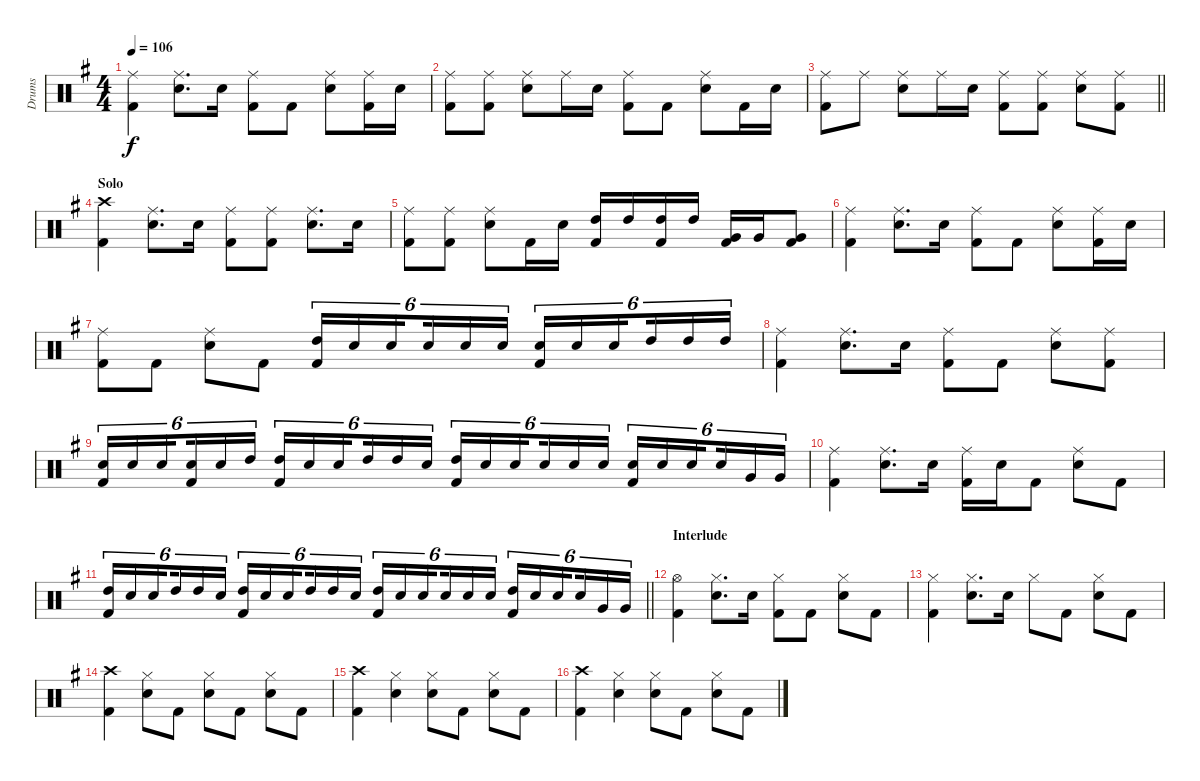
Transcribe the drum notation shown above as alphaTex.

\track ("Drums" "Drums") {instrument percussion}
\staff {score}
\articulation defaults
\ts (4 4)
\tempo 106
\clef neutral
\ks g
("Ride (middle)" "Kick (hit) 2").4{dy f} ("Ride (middle)" "Snare (hit) 2").8{d} "Snare (hit) 2".16 ("Ride (middle)" "Kick (hit) 2").8 "Kick (hit) 2".8 ("Ride (middle)" "Snare (hit) 2").8 ("Ride (middle)" "Kick (hit) 2").16 "Snare (hit) 2".16 |
("Ride (middle)" "Kick (hit) 2").8 ("Ride (middle)" "Kick (hit) 2").8 ("Ride (middle)" "Snare (hit) 2").8 "Ride (middle)".16 "Snare (hit) 2".16 ("Ride (middle)" "Kick (hit) 2").8 "Kick (hit) 2".8 ("Ride (middle)" "Snare (hit) 2").8 "Kick (hit) 2".16 "Snare (hit) 2".16 |
\barLineRight lightlight
("Ride (middle)" "Kick (hit) 2").8 "Ride (middle)".8 ("Ride (middle)" "Snare (hit) 2").8 "Ride (middle)".16 "Snare (hit) 2".16 ("Ride (middle)" "Kick (hit) 2").8 ("Ride (middle)" "Kick (hit) 2").8 ("Ride (middle)" "Snare (hit) 2").8 ("Ride (middle)" "Kick (hit) 2").8 |
\section ("" "Solo")
("Crash high (hit)" "Kick (hit) 2").4 ("Ride (middle)" "Snare (hit) 2").8{d} "Snare (hit) 2".16 ("Ride (middle)" "Kick (hit) 2").8 ("Ride (middle)" "Kick (hit) 2").8 ("Ride (middle)" "Snare (hit) 2").8{d} "Snare (hit) 2".16 |
("Ride (middle)" "Kick (hit) 2").8 ("Ride (middle)" "Kick (hit) 2").8 ("Ride (middle)" "Snare (hit) 2").8 "Kick (hit) 2".16 "Snare (hit) 2".16 ("High Tom (hit)" "Kick (hit) 2").16 "High Tom (hit)".16 ("High Tom (hit)" "Kick (hit) 2").16 "High Tom (hit)".16 ("Very Low Tom (hit)" "Kick (hit) 2").16 "Very Low Tom (hit)".16 ("Very Low Tom (hit)" "Kick (hit) 2").8 |
("Ride (middle)" "Kick (hit) 2").4 ("Ride (middle)" "Snare (hit) 2").8{d} "Snare (hit) 2".16 ("Ride (middle)" "Kick (hit) 2").8 "Kick (hit) 2".8 ("Ride (middle)" "Snare (hit) 2").8 ("Ride (middle)" "Kick (hit) 2").16 "Snare (hit) 2".16 |
("Ride (middle)" "Kick (hit) 2").8 "Kick (hit) 2".8 ("Ride (middle)" "Snare (hit) 2").8 "Kick (hit) 2".8 ("High Tom (hit)" "Kick (hit) 2").16{tu (6 4)} "Snare (hit) 2".16{tu (6 4)} "Snare (hit) 2".16{tu (6 4) beam splitsecondary} "Snare (hit) 2".16{tu (6 4)} "Snare (hit) 2".16{tu (6 4)} "Snare (hit) 2".16{tu (6 4)} ("Snare (hit) 2" "Kick (hit) 2").16{tu (6 4)} "Snare (hit) 2".16{tu (6 4)} "Snare (hit) 2".16{tu (6 4) beam splitsecondary} "High Tom (hit)".16{tu (6 4)} "High Tom (hit)".16{tu (6 4)} "High Tom (hit)".16{tu (6 4)} |
("Ride (middle)" "Kick (hit) 2").4 ("Ride (middle)" "Snare (hit) 2").8{d} "Snare (hit) 2".16 ("Ride (middle)" "Kick (hit) 2").8 "Kick (hit) 2".8 ("Ride (middle)" "Snare (hit) 2").8 ("Ride (middle)" "Kick (hit) 2").8 |
("Snare (hit) 2" "Kick (hit) 2").16{tu (6 4)} "Snare (hit) 2".16{tu (6 4)} "Snare (hit) 2".16{tu (6 4) beam splitsecondary} ("Snare (hit) 2" "Kick (hit) 2").16{tu (6 4)} "Snare (hit) 2".16{tu (6 4)} "High Tom (hit)".16{tu (6 4)} ("High Tom (hit)" "Kick (hit) 2").16{tu (6 4)} "Snare (hit) 2".16{tu (6 4)} "Snare (hit) 2".16{tu (6 4) beam splitsecondary} "High Tom (hit)".16{tu (6 4)} "High Tom (hit)".16{tu (6 4)} "Snare (hit) 2".16{tu (6 4)} ("High Tom (hit)" "Kick (hit) 2").16{tu (6 4)} "Snare (hit) 2".16{tu (6 4)} "Snare (hit) 2".16{tu (6 4) beam splitsecondary} "Snare (hit) 2".16{tu (6 4)} "Snare (hit) 2".16{tu (6 4)} "Snare (hit) 2".16{tu (6 4)} ("Snare (hit) 2" "Kick (hit) 2").16{tu (6 4)} "Snare (hit) 2".16{tu (6 4)} "Snare (hit) 2".16{tu (6 4) beam splitsecondary} "Snare (hit) 2".16{tu (6 4)} "Very Low Tom (hit)".16{tu (6 4)} "Very Low Tom (hit)".16{tu (6 4)} |
("Ride (middle)" "Kick (hit) 2").4 ("Ride (middle)" "Snare (hit) 2").8{d} "Snare (hit) 2".16 ("Ride (middle)" "Kick (hit) 2").16 "Snare (hit) 2".16 "Kick (hit) 2".8 ("Ride (middle)" "Snare (hit) 2").8 "Kick (hit) 2".8 |
\barLineRight lightlight
("High Tom (hit)" "Kick (hit) 2").16{tu (6 4)} "Snare (hit) 2".16{tu (6 4)} "Snare (hit) 2".16{tu (6 4) beam splitsecondary} "High Tom (hit)".16{tu (6 4)} "High Tom (hit)".16{tu (6 4)} "Snare (hit) 2".16{tu (6 4)} ("High Tom (hit)" "Kick (hit) 2").16{tu (6 4)} "Snare (hit) 2".16{tu (6 4)} "Snare (hit) 2".16{tu (6 4) beam splitsecondary} "High Tom (hit)".16{tu (6 4)} "High Tom (hit)".16{tu (6 4)} "Snare (hit) 2".16{tu (6 4)} ("High Tom (hit)" "Kick (hit) 2").16{tu (6 4)} "Snare (hit) 2".16{tu (6 4)} "Snare (hit) 2".16{tu (6 4) beam splitsecondary} "Snare (hit) 2".16{tu (6 4)} "Snare (hit) 2".16{tu (6 4)} "Snare (hit) 2".16{tu (6 4)} ("High Tom (hit)" "Kick (hit) 2").16{tu (6 4)} "Snare (hit) 2".16{tu (6 4)} "Snare (hit) 2".16{tu (6 4) beam splitsecondary} "Snare (hit) 2".16{tu (6 4)} "Very Low Tom (hit)".16{tu (6 4)} "Very Low Tom (hit)".16{tu (6 4)} |
\section ("" "Interlude")
("Hi-Hat (open)" "Kick (hit) 2").4 ("Hi-Hat (closed)" "Snare (hit) 2").8{d} "Snare (hit) 2".16 ("Hi-Hat (closed)" "Kick (hit) 2").8 "Kick (hit) 2".8 ("Hi-Hat (closed)" "Snare (hit) 2").8 "Kick (hit) 2".8 |
("Hi-Hat (closed)" "Kick (hit) 2").4 ("Hi-Hat (closed)" "Snare (hit) 2").8{d} "Snare (hit) 2".16 "Hi-Hat (closed)".8 "Kick (hit) 2".8 ("Hi-Hat (closed)" "Snare (hit) 2").8 "Kick (hit) 2".8 |
("Crash high (hit)" "Kick (hit) 2").4 ("Hi-Hat (closed)" "Snare (hit) 2").8 "Kick (hit) 2".8 ("Hi-Hat (closed)" "Snare (hit) 2").8 "Kick (hit) 2".8 ("Hi-Hat (closed)" "Snare (hit) 2").8 "Kick (hit) 2".8 |
("Crash high (hit)" "Kick (hit) 2").4 ("Hi-Hat (closed)" "Snare (hit) 2").4 ("Hi-Hat (closed)" "Snare (hit) 2").8 "Kick (hit) 2".8 ("Hi-Hat (closed)" "Snare (hit) 2").8 "Kick (hit) 2".8 |
("Crash high (hit)" "Kick (hit) 2").4 ("Hi-Hat (closed)" "Snare (hit) 2").4 ("Hi-Hat (closed)" "Snare (hit) 2").8 "Kick (hit) 2".8 ("Hi-Hat (closed)" "Snare (hit) 2").8 "Kick (hit) 2".8
